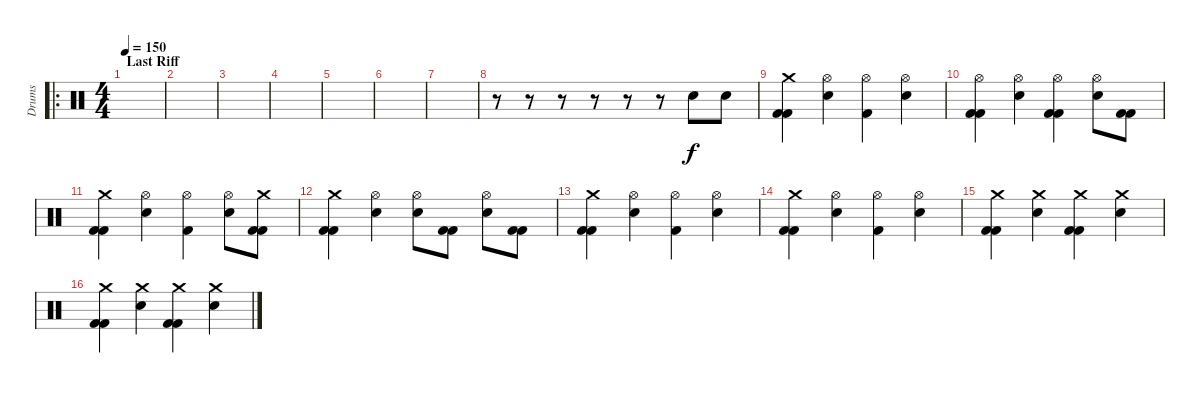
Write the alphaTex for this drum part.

\track ("Drums" "Drums") {instrument percussion}
\staff {score}
\articulation defaults
\ro
\ts (4 4)
\section ("" "Last Riff")
\tempo 150
\clef neutral
\ks c
|
|
|
|
|
|
|
r.8 r.8 r.8 r.8 r.8 r.8 "Electric Snare (hit)".8 "Electric Snare (hit)".8 |
("Crash medium (hit)" "Kick (hit) 2" "Kick (hit) 2").4 ("Electric Snare (hit)" "Hi-Hat (open)").4 ("Hi-Hat (open)" "Kick (hit) 2").4 ("Electric Snare (hit)" "Hi-Hat (open)").4 |
("Hi-Hat (open)" "Kick (hit) 2" "Kick (hit) 2").4 ("Hi-Hat (open)" "Electric Snare (hit)").4 ("Kick (hit) 2" "Kick (hit) 2" "Hi-Hat (open)").4 ("Hi-Hat (open)" "Electric Snare (hit)").8 ("Kick (hit) 2" "Kick (hit) 2").8 |
("Crash medium (hit)" "Kick (hit) 2" "Kick (hit) 2").4 ("Electric Snare (hit)" "Hi-Hat (open)").4 ("Hi-Hat (open)" "Kick (hit) 2").4 ("Electric Snare (hit)" "Hi-Hat (open)").8 ("Crash medium (hit)" "Kick (hit) 2" "Kick (hit) 2").8 |
("Crash medium (hit)" "Kick (hit) 2" "Kick (hit) 2").4 ("Electric Snare (hit)" "Hi-Hat (open)").4 ("Hi-Hat (open)" "Electric Snare (hit)").8 ("Kick (hit) 2" "Kick (hit) 2").8 ("Electric Snare (hit)" "Hi-Hat (open)").8 ("Kick (hit) 2" "Kick (hit) 2").8 |
("Crash medium (hit)" "Kick (hit) 2" "Kick (hit) 2").4 ("Electric Snare (hit)" "Hi-Hat (open)").4 ("Hi-Hat (open)" "Kick (hit) 2").4 ("Electric Snare (hit)" "Hi-Hat (open)").4 |
("Crash medium (hit)" "Kick (hit) 2" "Kick (hit) 2").4 ("Electric Snare (hit)" "Hi-Hat (open)").4 ("Hi-Hat (open)" "Kick (hit) 2").4 ("Electric Snare (hit)" "Hi-Hat (open)").4 |
("Crash medium (hit)" "Kick (hit) 2" "Kick (hit) 2").4 ("Electric Snare (hit)" "Crash medium (hit)").4 ("Crash medium (hit)" "Kick (hit) 2" "Kick (hit) 2").4 ("Electric Snare (hit)" "Crash medium (hit)").4 |
("Crash medium (hit)" "Kick (hit) 2" "Kick (hit) 2").4 ("Electric Snare (hit)" "Crash medium (hit)").4 ("Crash medium (hit)" "Kick (hit) 2" "Kick (hit) 2").4 ("Electric Snare (hit)" "Crash medium (hit)").4
